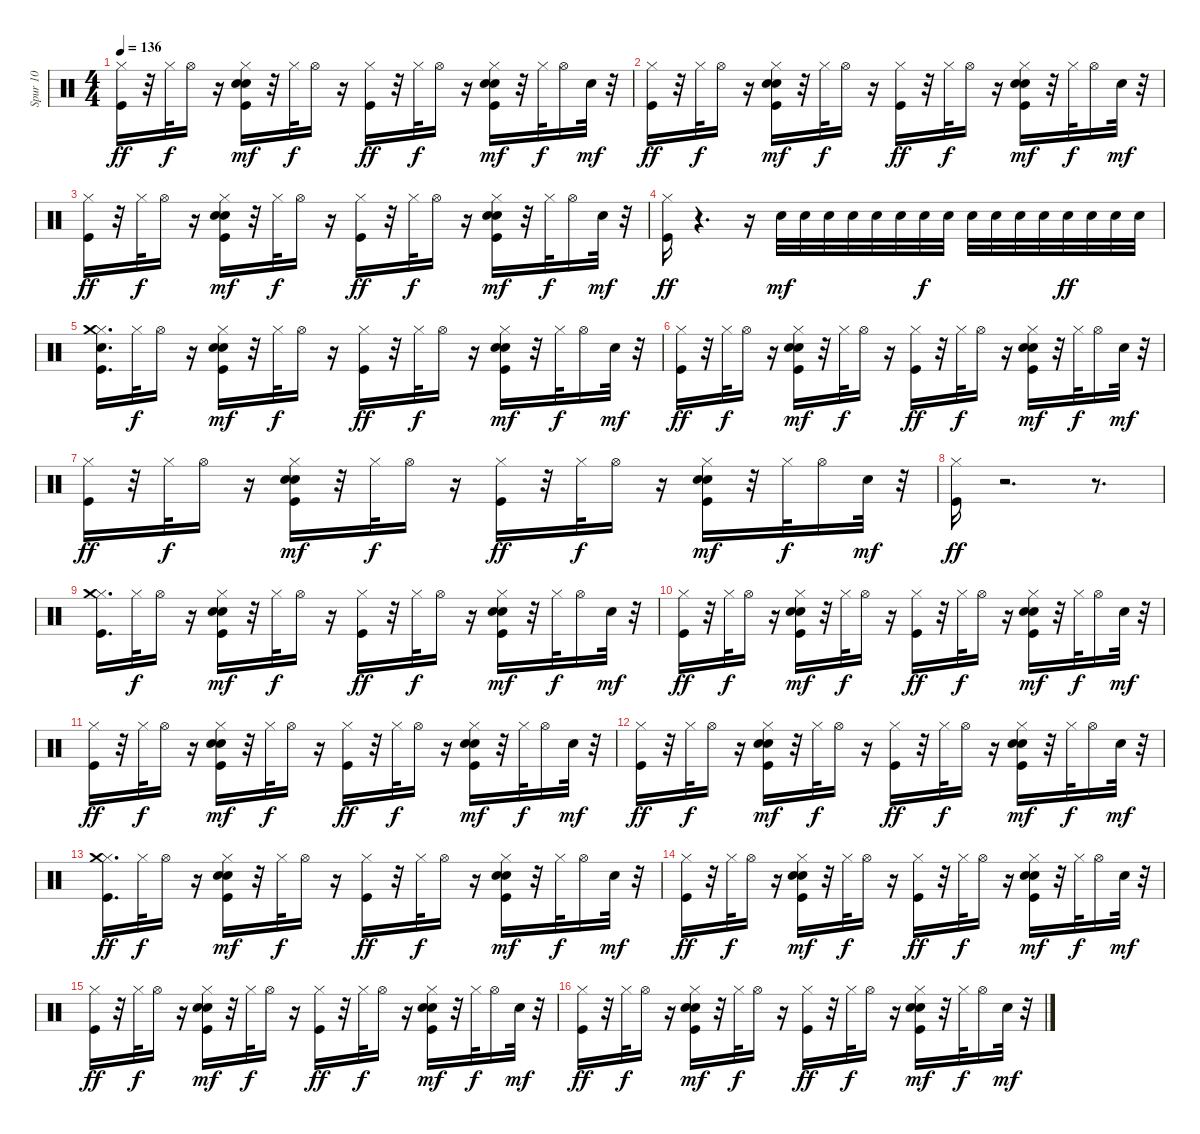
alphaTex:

\track ("Spur 10" "Spur 10") {instrument percussion}
\staff {score}
\articulation defaults
\ts (4 4)
\tempo 136
\clef neutral
\ks c
("Kick (hit)" "Hi-Hat (closed)").16{dy ff} r.32 "Hi-Hat (closed)".32{dy f} "Hi-Hat (open)".16 r.16 ("Kick (hit)" "Snare (hit) 2" "Hi-Hat (closed)" "Hand Clap (hit)").16{dy mf} r.32 "Hi-Hat (closed)".32{dy f} "Hi-Hat (open)".16 r.16 ("Kick (hit)" "Hi-Hat (closed)").16{dy ff} r.32 "Hi-Hat (closed)".32{dy f} "Hi-Hat (open)".16 r.16 ("Kick (hit)" "Snare (hit) 2" "Hi-Hat (closed)" "Hand Clap (hit)").16{dy mf} r.32 "Hi-Hat (closed)".32{dy f} "Hi-Hat (open)".16 "Snare (hit) 2".32{dy mf} r.32 |
("Kick (hit)" "Hi-Hat (closed)").16{dy ff} r.32 "Hi-Hat (closed)".32{dy f} "Hi-Hat (open)".16 r.16 ("Kick (hit)" "Snare (hit) 2" "Hi-Hat (closed)" "Hand Clap (hit)").16{dy mf} r.32 "Hi-Hat (closed)".32{dy f} "Hi-Hat (open)".16 r.16 ("Kick (hit)" "Hi-Hat (closed)").16{dy ff} r.32 "Hi-Hat (closed)".32{dy f} "Hi-Hat (open)".16 r.16 ("Kick (hit)" "Snare (hit) 2" "Hi-Hat (closed)" "Hand Clap (hit)").16{dy mf} r.32 "Hi-Hat (closed)".32{dy f} "Hi-Hat (open)".16 "Snare (hit) 2".32{dy mf} r.32 |
("Kick (hit)" "Hi-Hat (closed)").16{dy ff} r.32 "Hi-Hat (closed)".32{dy f} "Hi-Hat (open)".16 r.16 ("Kick (hit)" "Snare (hit) 2" "Hi-Hat (closed)" "Hand Clap (hit)").16{dy mf} r.32 "Hi-Hat (closed)".32{dy f} "Hi-Hat (open)".16 r.16 ("Kick (hit)" "Hi-Hat (closed)").16{dy ff} r.32 "Hi-Hat (closed)".32{dy f} "Hi-Hat (open)".16 r.16 ("Kick (hit)" "Snare (hit) 2" "Hi-Hat (closed)" "Hand Clap (hit)").16{dy mf} r.32 "Hi-Hat (closed)".32{dy f} "Hi-Hat (open)".16 "Snare (hit) 2".32{dy mf} r.32 |
("Kick (hit)" "Hi-Hat (closed)").16{dy ff} r.4{d} r.16 "Snare (hit) 2".32{dy mf} "Snare (hit) 2".32 "Snare (hit) 2".32 "Snare (hit) 2".32 "Snare (hit) 2".32 "Snare (hit) 2".32 "Snare (hit) 2".32{dy f} "Snare (hit) 2".32 "Snare (hit) 2".32 "Snare (hit) 2".32 "Snare (hit) 2".32 "Snare (hit) 2".32 "Snare (hit) 2".32{dy ff} "Snare (hit) 2".32 "Snare (hit) 2".32 "Snare (hit) 2".32 |
("Kick (hit)" "Hi-Hat (closed)" "Crash medium (hit)" "Snare (hit) 2").16{d} "Hi-Hat (closed)".32{dy f} "Hi-Hat (open)".16 r.16 ("Kick (hit)" "Snare (hit) 2" "Hi-Hat (closed)" "Hand Clap (hit)").16{dy mf} r.32 "Hi-Hat (closed)".32{dy f} "Hi-Hat (open)".16 r.16 ("Kick (hit)" "Hi-Hat (closed)").16{dy ff} r.32 "Hi-Hat (closed)".32{dy f} "Hi-Hat (open)".16 r.16 ("Kick (hit)" "Snare (hit) 2" "Hi-Hat (closed)" "Hand Clap (hit)").16{dy mf} r.32 "Hi-Hat (closed)".32{dy f} "Hi-Hat (open)".16 "Snare (hit) 2".32{dy mf} r.32 |
("Kick (hit)" "Hi-Hat (closed)").16{dy ff} r.32 "Hi-Hat (closed)".32{dy f} "Hi-Hat (open)".16 r.16 ("Kick (hit)" "Snare (hit) 2" "Hi-Hat (closed)" "Hand Clap (hit)").16{dy mf} r.32 "Hi-Hat (closed)".32{dy f} "Hi-Hat (open)".16 r.16 ("Kick (hit)" "Hi-Hat (closed)").16{dy ff} r.32 "Hi-Hat (closed)".32{dy f} "Hi-Hat (open)".16 r.16 ("Kick (hit)" "Snare (hit) 2" "Hi-Hat (closed)" "Hand Clap (hit)").16{dy mf} r.32 "Hi-Hat (closed)".32{dy f} "Hi-Hat (open)".16 "Snare (hit) 2".32{dy mf} r.32 |
("Kick (hit)" "Hi-Hat (closed)").16{dy ff} r.32 "Hi-Hat (closed)".32{dy f} "Hi-Hat (open)".16 r.16 ("Kick (hit)" "Snare (hit) 2" "Hi-Hat (closed)" "Hand Clap (hit)").16{dy mf} r.32 "Hi-Hat (closed)".32{dy f} "Hi-Hat (open)".16 r.16 ("Kick (hit)" "Hi-Hat (closed)").16{dy ff} r.32 "Hi-Hat (closed)".32{dy f} "Hi-Hat (open)".16 r.16 ("Kick (hit)" "Snare (hit) 2" "Hi-Hat (closed)" "Hand Clap (hit)").16{dy mf} r.32 "Hi-Hat (closed)".32{dy f} "Hi-Hat (open)".16 "Snare (hit) 2".32{dy mf} r.32 |
("Kick (hit)" "Hi-Hat (closed)").16{dy ff} r.2{d} r.8{d} |
("Kick (hit)" "Hi-Hat (closed)" "Crash medium (hit)").16{d} "Hi-Hat (closed)".32{dy f} "Hi-Hat (open)".16 r.16 ("Kick (hit)" "Snare (hit) 2" "Hi-Hat (closed)" "Hand Clap (hit)").16{dy mf} r.32 "Hi-Hat (closed)".32{dy f} "Hi-Hat (open)".16 r.16 ("Kick (hit)" "Hi-Hat (closed)").16{dy ff} r.32 "Hi-Hat (closed)".32{dy f} "Hi-Hat (open)".16 r.16 ("Kick (hit)" "Snare (hit) 2" "Hi-Hat (closed)" "Hand Clap (hit)").16{dy mf} r.32 "Hi-Hat (closed)".32{dy f} "Hi-Hat (open)".16 "Snare (hit) 2".32{dy mf} r.32 |
("Kick (hit)" "Hi-Hat (closed)").16{dy ff} r.32 "Hi-Hat (closed)".32{dy f} "Hi-Hat (open)".16 r.16 ("Kick (hit)" "Snare (hit) 2" "Hi-Hat (closed)" "Hand Clap (hit)").16{dy mf} r.32 "Hi-Hat (closed)".32{dy f} "Hi-Hat (open)".16 r.16 ("Kick (hit)" "Hi-Hat (closed)").16{dy ff} r.32 "Hi-Hat (closed)".32{dy f} "Hi-Hat (open)".16 r.16 ("Kick (hit)" "Snare (hit) 2" "Hi-Hat (closed)" "Hand Clap (hit)").16{dy mf} r.32 "Hi-Hat (closed)".32{dy f} "Hi-Hat (open)".16 "Snare (hit) 2".32{dy mf} r.32 |
("Kick (hit)" "Hi-Hat (closed)").16{dy ff} r.32 "Hi-Hat (closed)".32{dy f} "Hi-Hat (open)".16 r.16 ("Kick (hit)" "Snare (hit) 2" "Hi-Hat (closed)" "Hand Clap (hit)").16{dy mf} r.32 "Hi-Hat (closed)".32{dy f} "Hi-Hat (open)".16 r.16 ("Kick (hit)" "Hi-Hat (closed)").16{dy ff} r.32 "Hi-Hat (closed)".32{dy f} "Hi-Hat (open)".16 r.16 ("Kick (hit)" "Snare (hit) 2" "Hi-Hat (closed)" "Hand Clap (hit)").16{dy mf} r.32 "Hi-Hat (closed)".32{dy f} "Hi-Hat (open)".16 "Snare (hit) 2".32{dy mf} r.32 |
("Kick (hit)" "Hi-Hat (closed)").16{dy ff} r.32 "Hi-Hat (closed)".32{dy f} "Hi-Hat (open)".16 r.16 ("Kick (hit)" "Snare (hit) 2" "Hi-Hat (closed)" "Hand Clap (hit)").16{dy mf} r.32 "Hi-Hat (closed)".32{dy f} "Hi-Hat (open)".16 r.16 ("Kick (hit)" "Hi-Hat (closed)").16{dy ff} r.32 "Hi-Hat (closed)".32{dy f} "Hi-Hat (open)".16 r.16 ("Kick (hit)" "Snare (hit) 2" "Hi-Hat (closed)" "Hand Clap (hit)").16{dy mf} r.32 "Hi-Hat (closed)".32{dy f} "Hi-Hat (open)".16 "Snare (hit) 2".32{dy mf} r.32 |
("Kick (hit)" "Hi-Hat (closed)" "Crash medium (hit)").16{d dy ff} "Hi-Hat (closed)".32{dy f} "Hi-Hat (open)".16 r.16 ("Kick (hit)" "Snare (hit) 2" "Hi-Hat (closed)" "Hand Clap (hit)").16{dy mf} r.32 "Hi-Hat (closed)".32{dy f} "Hi-Hat (open)".16 r.16 ("Kick (hit)" "Hi-Hat (closed)").16{dy ff} r.32 "Hi-Hat (closed)".32{dy f} "Hi-Hat (open)".16 r.16 ("Kick (hit)" "Snare (hit) 2" "Hi-Hat (closed)" "Hand Clap (hit)").16{dy mf} r.32 "Hi-Hat (closed)".32{dy f} "Hi-Hat (open)".16 "Snare (hit) 2".32{dy mf} r.32 |
("Kick (hit)" "Hi-Hat (closed)").16{dy ff} r.32 "Hi-Hat (closed)".32{dy f} "Hi-Hat (open)".16 r.16 ("Kick (hit)" "Snare (hit) 2" "Hi-Hat (closed)" "Hand Clap (hit)").16{dy mf} r.32 "Hi-Hat (closed)".32{dy f} "Hi-Hat (open)".16 r.16 ("Kick (hit)" "Hi-Hat (closed)").16{dy ff} r.32 "Hi-Hat (closed)".32{dy f} "Hi-Hat (open)".16 r.16 ("Kick (hit)" "Snare (hit) 2" "Hi-Hat (closed)" "Hand Clap (hit)").16{dy mf} r.32 "Hi-Hat (closed)".32{dy f} "Hi-Hat (open)".16 "Snare (hit) 2".32{dy mf} r.32 |
("Kick (hit)" "Hi-Hat (closed)").16{dy ff} r.32 "Hi-Hat (closed)".32{dy f} "Hi-Hat (open)".16 r.16 ("Kick (hit)" "Snare (hit) 2" "Hi-Hat (closed)" "Hand Clap (hit)").16{dy mf} r.32 "Hi-Hat (closed)".32{dy f} "Hi-Hat (open)".16 r.16 ("Kick (hit)" "Hi-Hat (closed)").16{dy ff} r.32 "Hi-Hat (closed)".32{dy f} "Hi-Hat (open)".16 r.16 ("Kick (hit)" "Snare (hit) 2" "Hi-Hat (closed)" "Hand Clap (hit)").16{dy mf} r.32 "Hi-Hat (closed)".32{dy f} "Hi-Hat (open)".16 "Snare (hit) 2".32{dy mf} r.32 |
("Kick (hit)" "Hi-Hat (closed)").16{dy ff} r.32 "Hi-Hat (closed)".32{dy f} "Hi-Hat (open)".16 r.16 ("Kick (hit)" "Snare (hit) 2" "Hi-Hat (closed)" "Hand Clap (hit)").16{dy mf} r.32 "Hi-Hat (closed)".32{dy f} "Hi-Hat (open)".16 r.16 ("Kick (hit)" "Hi-Hat (closed)").16{dy ff} r.32 "Hi-Hat (closed)".32{dy f} "Hi-Hat (open)".16 r.16 ("Kick (hit)" "Snare (hit) 2" "Hi-Hat (closed)" "Hand Clap (hit)").16{dy mf} r.32 "Hi-Hat (closed)".32{dy f} "Hi-Hat (open)".16 "Snare (hit) 2".32{dy mf} r.32
